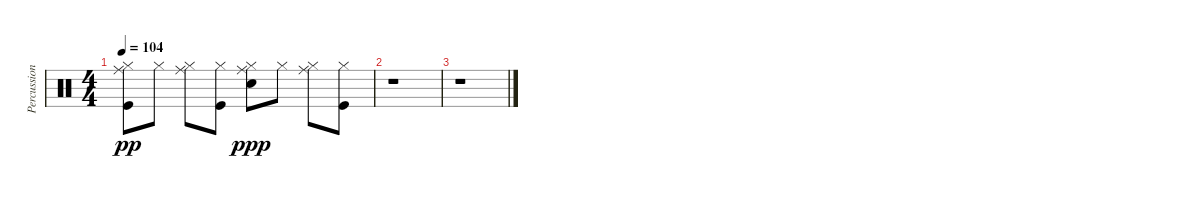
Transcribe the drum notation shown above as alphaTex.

\track ("Percussioni" "Percussion") {instrument percussion}
\staff {score}
\articulation defaults
\ts (4 4)
\tempo 104
\clef neutral
\ks c
("Ride (middle)" "Hi-Hat (closed)" "Kick (hit)").8{dy pp} "Hi-Hat (closed)".8 ("Ride (middle)" "Hi-Hat (closed)").8 ("Hi-Hat (closed)" "Kick (hit)").8 ("Ride (middle)" "Hi-Hat (closed)" "Snare (hit) 2").8{dy ppp} "Hi-Hat (closed)".8 ("Ride (middle)" "Hi-Hat (closed)").8 ("Hi-Hat (closed)" "Kick (hit)").8 |
r.1 |
r.1
